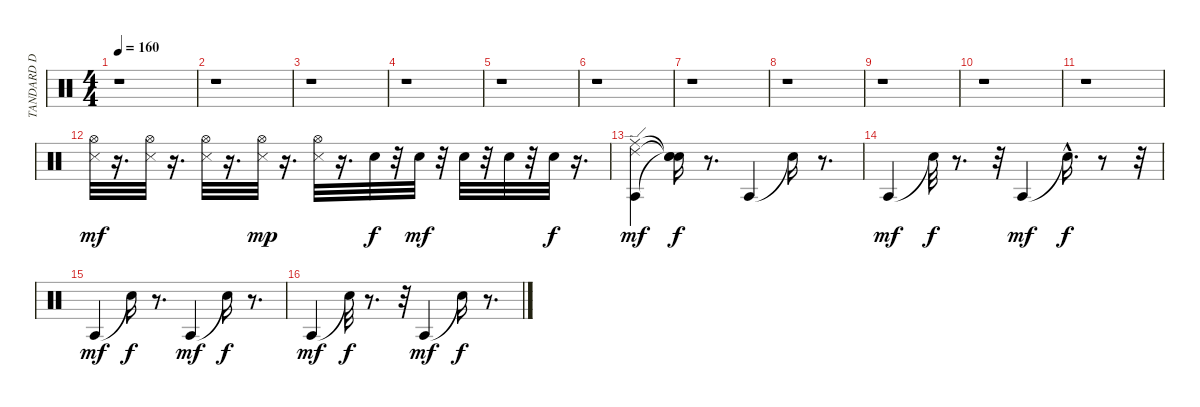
\track ("STANDARD DRUMS" "STANDARD D") {instrument percussion}
\staff {score}
\articulation defaults
\ts (4 4)
\tempo 160
\clef neutral
\ks c
r.1{dy mf} |
r.1 |
r.1 |
r.1 |
r.1 |
r.1 |
r.1 |
r.1 |
r.1 |
r.1 |
r.1 |
("Hi-Hat (open)" "Snare (side stick) 3").32 r.16{d} ("Hi-Hat (open)" "Snare (side stick) 3").32 r.16{d} ("Snare (side stick) 3" "Hi-Hat (open)").32 r.16{d} ("Snare (side stick) 3" "Hi-Hat (open)").32{dy mp} r.16{d} ("Snare (side stick) 3" "Hi-Hat (open)").32 r.16{d} "Electric Snare (hit)".32{dy f} r.32 "Electric Snare (hit)".32{dy mf} r.32 "Electric Snare (hit)".32 r.32 "Electric Snare (hit)".32 r.32 "Electric Snare (hit)".32{dy f} r.16{d} |
("Ride (middle)" "Agogo tow (hit)" "Ride (edge) 2").4{dy mf} ("Snare (hit)"{t} "Snare (hit)"{t} "Snare (hit)"{t}).16{dy f} r.8{d} "Agogo tow (hit)".4 "Snare (hit)"{t}.16 r.8{d} |
"Agogo tow (hit)".4{dy mf} "Snare (hit)"{t}.32{dy f} r.8{d} r.32 "Agogo tow (hit)".4{dy mf} "Snare (hit)"{hac t}.16{d dy f} r.8 r.32 |
"Agogo tow (hit)".4{dy mf} "Snare (hit)"{t}.16{dy f} r.8{d} "Agogo tow (hit)".4{dy mf} "Snare (hit)"{t}.16{dy f} r.8{d} |
"Agogo tow (hit)".4{dy mf} "Snare (hit)"{t}.32{dy f} r.8{d} r.32 "Agogo tow (hit)".4{dy mf} "Snare (hit)"{t}.16{dy f} r.8{d}
